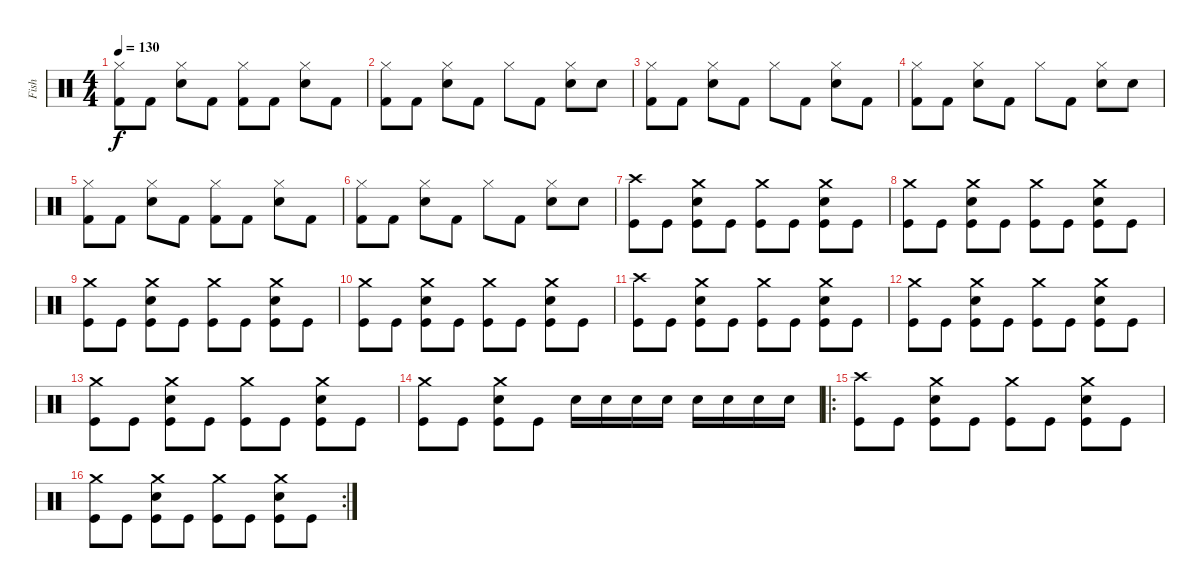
\track ("Fish" "Fish") {instrument percussion}
\staff {score}
\articulation defaults
\ts (4 4)
\tempo 130
\clef neutral
\ks c
("Hi-Hat (closed)" "Kick (hit) 2").8{dy f} "Kick (hit) 2".8 ("Hi-Hat (closed)" "Electric Snare (hit)").8 "Kick (hit) 2".8 ("Hi-Hat (closed)" "Kick (hit) 2").8 "Kick (hit) 2".8 ("Hi-Hat (closed)" "Electric Snare (hit)").8 "Kick (hit) 2".8 |
("Hi-Hat (closed)" "Kick (hit) 2").8 "Kick (hit) 2".8 ("Hi-Hat (closed)" "Electric Snare (hit)").8 "Kick (hit) 2".8 "Hi-Hat (closed)".8 "Kick (hit) 2".8 ("Hi-Hat (closed)" "Electric Snare (hit)").8 "Electric Snare (hit)".8 |
("Hi-Hat (closed)" "Kick (hit) 2").8 "Kick (hit) 2".8 ("Hi-Hat (closed)" "Electric Snare (hit)").8 "Kick (hit) 2".8 "Hi-Hat (closed)".8 "Kick (hit) 2".8 ("Hi-Hat (closed)" "Electric Snare (hit)").8 "Kick (hit) 2".8 |
("Hi-Hat (closed)" "Kick (hit) 2").8 "Kick (hit) 2".8 ("Hi-Hat (closed)" "Electric Snare (hit)").8 "Kick (hit) 2".8 "Hi-Hat (closed)".8 "Kick (hit) 2".8 ("Hi-Hat (closed)" "Electric Snare (hit)").8 "Electric Snare (hit)".8 |
("Hi-Hat (closed)" "Kick (hit) 2").8 "Kick (hit) 2".8 ("Hi-Hat (closed)" "Electric Snare (hit)").8 "Kick (hit) 2".8 ("Hi-Hat (closed)" "Kick (hit) 2").8 "Kick (hit) 2".8 ("Hi-Hat (closed)" "Electric Snare (hit)").8 "Kick (hit) 2".8 |
("Hi-Hat (closed)" "Kick (hit) 2").8 "Kick (hit) 2".8 ("Hi-Hat (closed)" "Electric Snare (hit)").8 "Kick (hit) 2".8 "Hi-Hat (closed)".8 "Kick (hit) 2".8 ("Hi-Hat (closed)" "Electric Snare (hit)").8 "Electric Snare (hit)".8 |
("Crash high (hit)" "Kick (hit)").8 "Kick (hit)".8 ("Crash medium (hit)" "Electric Snare (hit)" "Kick (hit)").8 "Kick (hit)".8 ("Crash medium (hit)" "Kick (hit)").8 "Kick (hit)".8 ("Crash medium (hit)" "Electric Snare (hit)" "Kick (hit)").8 "Kick (hit)".8 |
("Crash medium (hit)" "Kick (hit)").8 "Kick (hit)".8 ("Crash medium (hit)" "Electric Snare (hit)" "Kick (hit)").8 "Kick (hit)".8 ("Crash medium (hit)" "Kick (hit)").8 "Kick (hit)".8 ("Crash medium (hit)" "Electric Snare (hit)" "Kick (hit)").8 "Kick (hit)".8 |
("Crash medium (hit)" "Kick (hit)").8 "Kick (hit)".8 ("Crash medium (hit)" "Electric Snare (hit)" "Kick (hit)").8 "Kick (hit)".8 ("Crash medium (hit)" "Kick (hit)").8 "Kick (hit)".8 ("Crash medium (hit)" "Electric Snare (hit)" "Kick (hit)").8 "Kick (hit)".8 |
("Crash medium (hit)" "Kick (hit)").8 "Kick (hit)".8 ("Crash medium (hit)" "Electric Snare (hit)" "Kick (hit)").8 "Kick (hit)".8 ("Crash medium (hit)" "Kick (hit)").8 "Kick (hit)".8 ("Crash medium (hit)" "Electric Snare (hit)" "Kick (hit)").8 "Kick (hit)".8 |
("Crash high (hit)" "Kick (hit)").8 "Kick (hit)".8 ("Crash medium (hit)" "Electric Snare (hit)" "Kick (hit)").8 "Kick (hit)".8 ("Crash medium (hit)" "Kick (hit)").8 "Kick (hit)".8 ("Crash medium (hit)" "Electric Snare (hit)" "Kick (hit)").8 "Kick (hit)".8 |
("Crash medium (hit)" "Kick (hit)").8 "Kick (hit)".8 ("Crash medium (hit)" "Electric Snare (hit)" "Kick (hit)").8 "Kick (hit)".8 ("Crash medium (hit)" "Kick (hit)").8 "Kick (hit)".8 ("Crash medium (hit)" "Electric Snare (hit)" "Kick (hit)").8 "Kick (hit)".8 |
("Crash medium (hit)" "Kick (hit)").8 "Kick (hit)".8 ("Crash medium (hit)" "Electric Snare (hit)" "Kick (hit)").8 "Kick (hit)".8 ("Crash medium (hit)" "Kick (hit)").8 "Kick (hit)".8 ("Crash medium (hit)" "Electric Snare (hit)" "Kick (hit)").8 "Kick (hit)".8 |
("Crash medium (hit)" "Kick (hit)").8 "Kick (hit)".8 ("Crash medium (hit)" "Electric Snare (hit)" "Kick (hit)").8 "Kick (hit)".8 "Snare (hit) 2".16 "Snare (hit) 2".16 "Snare (hit) 2".16 "Snare (hit) 2".16 "Snare (hit) 2".16 "Snare (hit) 2".16 "Snare (hit) 2".16 "Snare (hit) 2".16 |
\ro
("Crash high (hit)" "Kick (hit)").8 "Kick (hit)".8 ("Crash medium (hit)" "Electric Snare (hit)" "Kick (hit)").8 "Kick (hit)".8 ("Crash medium (hit)" "Kick (hit)").8 "Kick (hit)".8 ("Crash medium (hit)" "Electric Snare (hit)" "Kick (hit)").8 "Kick (hit)".8 |
\rc 2
("Crash medium (hit)" "Kick (hit)").8 "Kick (hit)".8 ("Crash medium (hit)" "Electric Snare (hit)" "Kick (hit)").8 "Kick (hit)".8 ("Crash medium (hit)" "Kick (hit)").8 "Kick (hit)".8 ("Crash medium (hit)" "Electric Snare (hit)" "Kick (hit)").8 "Kick (hit)".8
